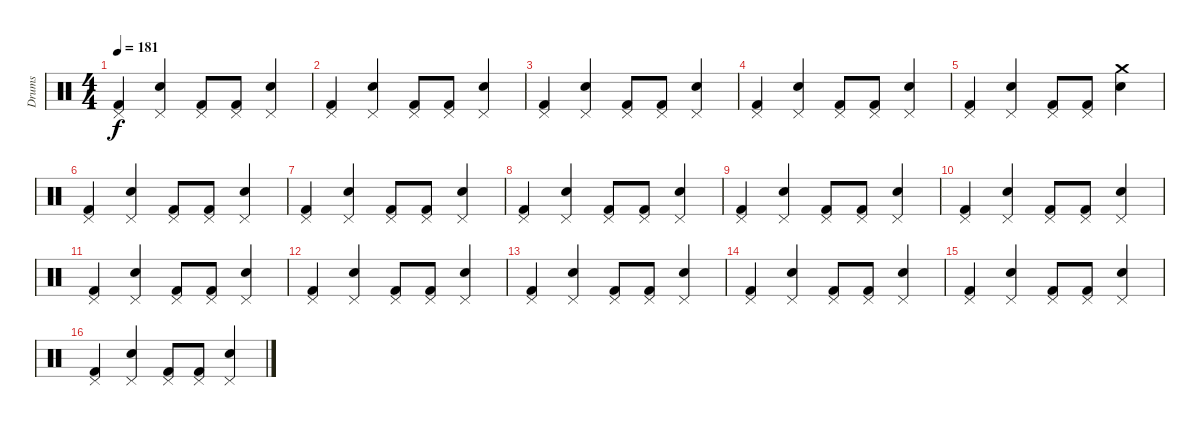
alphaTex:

\track ("Drums" "Drums") {instrument percussion}
\staff {score}
\articulation defaults
\ts (4 4)
\tempo 181
\clef neutral
\ks c
("Pedal Hi-Hat (hit)" "Kick (hit) 2").4{dy f} ("Pedal Hi-Hat (hit)" "Snare (hit) 2").4 ("Pedal Hi-Hat (hit)" "Kick (hit) 2").8 ("Pedal Hi-Hat (hit)" "Kick (hit) 2").8 ("Pedal Hi-Hat (hit)" "Snare (hit) 2").4 |
("Pedal Hi-Hat (hit)" "Kick (hit) 2").4 ("Pedal Hi-Hat (hit)" "Snare (hit) 2").4 ("Pedal Hi-Hat (hit)" "Kick (hit) 2").8 ("Pedal Hi-Hat (hit)" "Kick (hit) 2").8 ("Pedal Hi-Hat (hit)" "Snare (hit) 2").4 |
("Pedal Hi-Hat (hit)" "Kick (hit) 2").4 ("Pedal Hi-Hat (hit)" "Snare (hit) 2").4 ("Pedal Hi-Hat (hit)" "Kick (hit) 2").8 ("Pedal Hi-Hat (hit)" "Kick (hit) 2").8 ("Pedal Hi-Hat (hit)" "Snare (hit) 2").4 |
("Pedal Hi-Hat (hit)" "Kick (hit) 2").4 ("Pedal Hi-Hat (hit)" "Snare (hit) 2").4 ("Pedal Hi-Hat (hit)" "Kick (hit) 2").8 ("Pedal Hi-Hat (hit)" "Kick (hit) 2").8 ("Pedal Hi-Hat (hit)" "Snare (hit) 2").4 |
("Pedal Hi-Hat (hit)" "Kick (hit) 2").4 ("Pedal Hi-Hat (hit)" "Snare (hit) 2").4 ("Pedal Hi-Hat (hit)" "Kick (hit) 2").8 ("Pedal Hi-Hat (hit)" "Kick (hit) 2").8 ("Crash medium (hit)" "Snare (hit) 2").4 |
("Pedal Hi-Hat (hit)" "Kick (hit) 2").4 ("Pedal Hi-Hat (hit)" "Snare (hit) 2").4 ("Pedal Hi-Hat (hit)" "Kick (hit) 2").8 ("Pedal Hi-Hat (hit)" "Kick (hit) 2").8 ("Pedal Hi-Hat (hit)" "Snare (hit) 2").4 |
("Pedal Hi-Hat (hit)" "Kick (hit) 2").4 ("Pedal Hi-Hat (hit)" "Snare (hit) 2").4 ("Pedal Hi-Hat (hit)" "Kick (hit) 2").8 ("Pedal Hi-Hat (hit)" "Kick (hit) 2").8 ("Pedal Hi-Hat (hit)" "Snare (hit) 2").4 |
("Pedal Hi-Hat (hit)" "Kick (hit) 2").4 ("Pedal Hi-Hat (hit)" "Snare (hit) 2").4 ("Pedal Hi-Hat (hit)" "Kick (hit) 2").8 ("Pedal Hi-Hat (hit)" "Kick (hit) 2").8 ("Pedal Hi-Hat (hit)" "Snare (hit) 2").4 |
("Pedal Hi-Hat (hit)" "Kick (hit) 2").4 ("Pedal Hi-Hat (hit)" "Snare (hit) 2").4 ("Pedal Hi-Hat (hit)" "Kick (hit) 2").8 ("Pedal Hi-Hat (hit)" "Kick (hit) 2").8 ("Pedal Hi-Hat (hit)" "Snare (hit) 2").4 |
("Pedal Hi-Hat (hit)" "Kick (hit) 2").4 ("Pedal Hi-Hat (hit)" "Snare (hit) 2").4 ("Pedal Hi-Hat (hit)" "Kick (hit) 2").8 ("Pedal Hi-Hat (hit)" "Kick (hit) 2").8 ("Pedal Hi-Hat (hit)" "Snare (hit) 2").4 |
("Pedal Hi-Hat (hit)" "Kick (hit) 2").4 ("Pedal Hi-Hat (hit)" "Snare (hit) 2").4 ("Pedal Hi-Hat (hit)" "Kick (hit) 2").8 ("Pedal Hi-Hat (hit)" "Kick (hit) 2").8 ("Pedal Hi-Hat (hit)" "Snare (hit) 2").4 |
("Pedal Hi-Hat (hit)" "Kick (hit) 2").4 ("Pedal Hi-Hat (hit)" "Snare (hit) 2").4 ("Pedal Hi-Hat (hit)" "Kick (hit) 2").8 ("Pedal Hi-Hat (hit)" "Kick (hit) 2").8 ("Pedal Hi-Hat (hit)" "Snare (hit) 2").4 |
("Pedal Hi-Hat (hit)" "Kick (hit) 2").4 ("Pedal Hi-Hat (hit)" "Snare (hit) 2").4 ("Pedal Hi-Hat (hit)" "Kick (hit) 2").8 ("Pedal Hi-Hat (hit)" "Kick (hit) 2").8 ("Pedal Hi-Hat (hit)" "Snare (hit) 2").4 |
("Pedal Hi-Hat (hit)" "Kick (hit) 2").4 ("Pedal Hi-Hat (hit)" "Snare (hit) 2").4 ("Pedal Hi-Hat (hit)" "Kick (hit) 2").8 ("Pedal Hi-Hat (hit)" "Kick (hit) 2").8 ("Pedal Hi-Hat (hit)" "Snare (hit) 2").4 |
("Pedal Hi-Hat (hit)" "Kick (hit) 2").4 ("Pedal Hi-Hat (hit)" "Snare (hit) 2").4 ("Pedal Hi-Hat (hit)" "Kick (hit) 2").8 ("Pedal Hi-Hat (hit)" "Kick (hit) 2").8 ("Pedal Hi-Hat (hit)" "Snare (hit) 2").4 |
("Pedal Hi-Hat (hit)" "Kick (hit) 2").4 ("Pedal Hi-Hat (hit)" "Snare (hit) 2").4 ("Pedal Hi-Hat (hit)" "Kick (hit) 2").8 ("Pedal Hi-Hat (hit)" "Kick (hit) 2").8 ("Pedal Hi-Hat (hit)" "Snare (hit) 2").4
